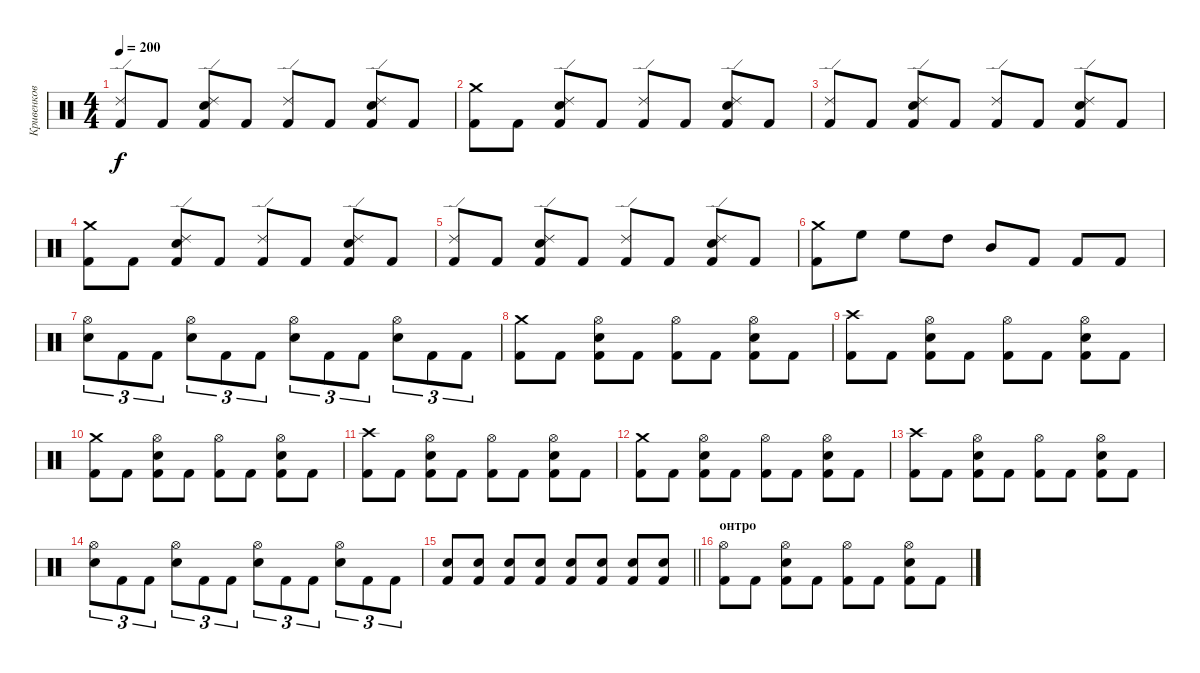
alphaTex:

\track ("Кривенков" "Кривенков") {instrument percussion}
\staff {score}
\articulation defaults
\ts (4 4)
\tempo 200
\clef neutral
\ks c
("Ride (edge) 2" "Kick (hit) 2").8{dy f} "Kick (hit) 2".8 ("Ride (edge) 2" "Electric Snare (hit)" "Kick (hit) 2").8 "Kick (hit) 2".8 ("Ride (edge) 2" "Kick (hit) 2").8 "Kick (hit) 2".8 ("Ride (edge) 2" "Electric Snare (hit)" "Kick (hit) 2").8 "Kick (hit) 2".8 |
("Crash medium (hit)" "Kick (hit) 2").8 "Kick (hit) 2".8 ("Ride (edge) 2" "Electric Snare (hit)" "Kick (hit) 2").8 "Kick (hit) 2".8 ("Ride (edge) 2" "Kick (hit) 2").8 "Kick (hit) 2".8 ("Ride (edge) 2" "Electric Snare (hit)" "Kick (hit) 2").8 "Kick (hit) 2".8 |
("Ride (edge) 2" "Kick (hit) 2").8 "Kick (hit) 2".8 ("Ride (edge) 2" "Electric Snare (hit)" "Kick (hit) 2").8 "Kick (hit) 2".8 ("Ride (edge) 2" "Kick (hit) 2").8 "Kick (hit) 2".8 ("Ride (edge) 2" "Electric Snare (hit)" "Kick (hit) 2").8 "Kick (hit) 2".8 |
("Crash medium (hit)" "Kick (hit) 2").8 "Kick (hit) 2".8 ("Ride (edge) 2" "Electric Snare (hit)" "Kick (hit) 2").8 "Kick (hit) 2".8 ("Ride (edge) 2" "Kick (hit) 2").8 "Kick (hit) 2".8 ("Ride (edge) 2" "Electric Snare (hit)" "Kick (hit) 2").8 "Kick (hit) 2".8 |
("Ride (edge) 2" "Kick (hit) 2").8 "Kick (hit) 2".8 ("Ride (edge) 2" "Electric Snare (hit)" "Kick (hit) 2").8 "Kick (hit) 2".8 ("Ride (edge) 2" "Kick (hit) 2").8 "Kick (hit) 2".8 ("Ride (edge) 2" "Electric Snare (hit)" "Kick (hit) 2").8 "Kick (hit) 2".8 |
("Crash medium (hit)" "Kick (hit) 2").8 "High Floor Tom (hit)".8 "High Floor Tom (hit)".8 "High Tom (hit)".8 "Mid Tom (hit)".8 "Kick (hit) 2".8 "Kick (hit) 2".8 "Kick (hit) 2".8 |
("Hi-Hat (open)" "Electric Snare (hit)").8{tu (3 2)} "Kick (hit) 2".8{tu (3 2)} "Kick (hit) 2".8{tu (3 2)} ("Hi-Hat (open)" "Electric Snare (hit)").8{tu (3 2)} "Kick (hit) 2".8{tu (3 2)} "Kick (hit) 2".8{tu (3 2)} ("Hi-Hat (open)" "Electric Snare (hit)").8{tu (3 2)} "Kick (hit) 2".8{tu (3 2)} "Kick (hit) 2".8{tu (3 2)} ("Hi-Hat (open)" "Electric Snare (hit)").8{tu (3 2)} "Kick (hit) 2".8{tu (3 2)} "Kick (hit) 2".8{tu (3 2)} |
("Crash medium (hit)" "Kick (hit) 2").8 "Kick (hit) 2".8 ("Hi-Hat (open)" "Electric Snare (hit)" "Kick (hit) 2").8 "Kick (hit) 2".8 ("Hi-Hat (open)" "Kick (hit) 2").8 "Kick (hit) 2".8 ("Hi-Hat (open)" "Electric Snare (hit)" "Kick (hit) 2").8 "Kick (hit) 2".8 |
("Crash high (hit)" "Kick (hit) 2").8 "Kick (hit) 2".8 ("Hi-Hat (open)" "Electric Snare (hit)" "Kick (hit) 2").8 "Kick (hit) 2".8 ("Hi-Hat (open)" "Kick (hit) 2").8 "Kick (hit) 2".8 ("Hi-Hat (open)" "Electric Snare (hit)" "Kick (hit) 2").8 "Kick (hit) 2".8 |
("Crash medium (hit)" "Kick (hit) 2").8 "Kick (hit) 2".8 ("Hi-Hat (open)" "Electric Snare (hit)" "Kick (hit) 2").8 "Kick (hit) 2".8 ("Hi-Hat (open)" "Kick (hit) 2").8 "Kick (hit) 2".8 ("Hi-Hat (open)" "Electric Snare (hit)" "Kick (hit) 2").8 "Kick (hit) 2".8 |
("Crash high (hit)" "Kick (hit) 2").8 "Kick (hit) 2".8 ("Hi-Hat (open)" "Electric Snare (hit)" "Kick (hit) 2").8 "Kick (hit) 2".8 ("Hi-Hat (open)" "Kick (hit) 2").8 "Kick (hit) 2".8 ("Hi-Hat (open)" "Electric Snare (hit)" "Kick (hit) 2").8 "Kick (hit) 2".8 |
("Crash medium (hit)" "Kick (hit) 2").8 "Kick (hit) 2".8 ("Hi-Hat (open)" "Electric Snare (hit)" "Kick (hit) 2").8 "Kick (hit) 2".8 ("Hi-Hat (open)" "Kick (hit) 2").8 "Kick (hit) 2".8 ("Hi-Hat (open)" "Electric Snare (hit)" "Kick (hit) 2").8 "Kick (hit) 2".8 |
("Crash high (hit)" "Kick (hit) 2").8 "Kick (hit) 2".8 ("Hi-Hat (open)" "Electric Snare (hit)" "Kick (hit) 2").8 "Kick (hit) 2".8 ("Hi-Hat (open)" "Kick (hit) 2").8 "Kick (hit) 2".8 ("Hi-Hat (open)" "Electric Snare (hit)" "Kick (hit) 2").8 "Kick (hit) 2".8 |
("Hi-Hat (open)" "Electric Snare (hit)").8{tu (3 2)} "Kick (hit) 2".8{tu (3 2)} "Kick (hit) 2".8{tu (3 2)} ("Hi-Hat (open)" "Electric Snare (hit)").8{tu (3 2)} "Kick (hit) 2".8{tu (3 2)} "Kick (hit) 2".8{tu (3 2)} ("Hi-Hat (open)" "Electric Snare (hit)").8{tu (3 2)} "Kick (hit) 2".8{tu (3 2)} "Kick (hit) 2".8{tu (3 2)} ("Hi-Hat (open)" "Electric Snare (hit)").8{tu (3 2)} "Kick (hit) 2".8{tu (3 2)} "Kick (hit) 2".8{tu (3 2)} |
\barLineRight lightlight
("Electric Snare (hit)" "Kick (hit) 2").8 ("Electric Snare (hit)" "Kick (hit) 2").8 ("Electric Snare (hit)" "Kick (hit) 2").8 ("Electric Snare (hit)" "Kick (hit) 2").8 ("Electric Snare (hit)" "Kick (hit) 2").8 ("Electric Snare (hit)" "Kick (hit) 2").8 ("Electric Snare (hit)" "Kick (hit) 2").8 ("Electric Snare (hit)" "Kick (hit) 2").8 |
\section ("" "онтро")
("Hi-Hat (open)" "Kick (hit) 2").8 "Kick (hit) 2".8 ("Hi-Hat (open)" "Electric Snare (hit)" "Kick (hit) 2").8 "Kick (hit) 2".8 ("Hi-Hat (open)" "Kick (hit) 2").8 "Kick (hit) 2".8 ("Hi-Hat (open)" "Electric Snare (hit)" "Kick (hit) 2").8 "Kick (hit) 2".8
